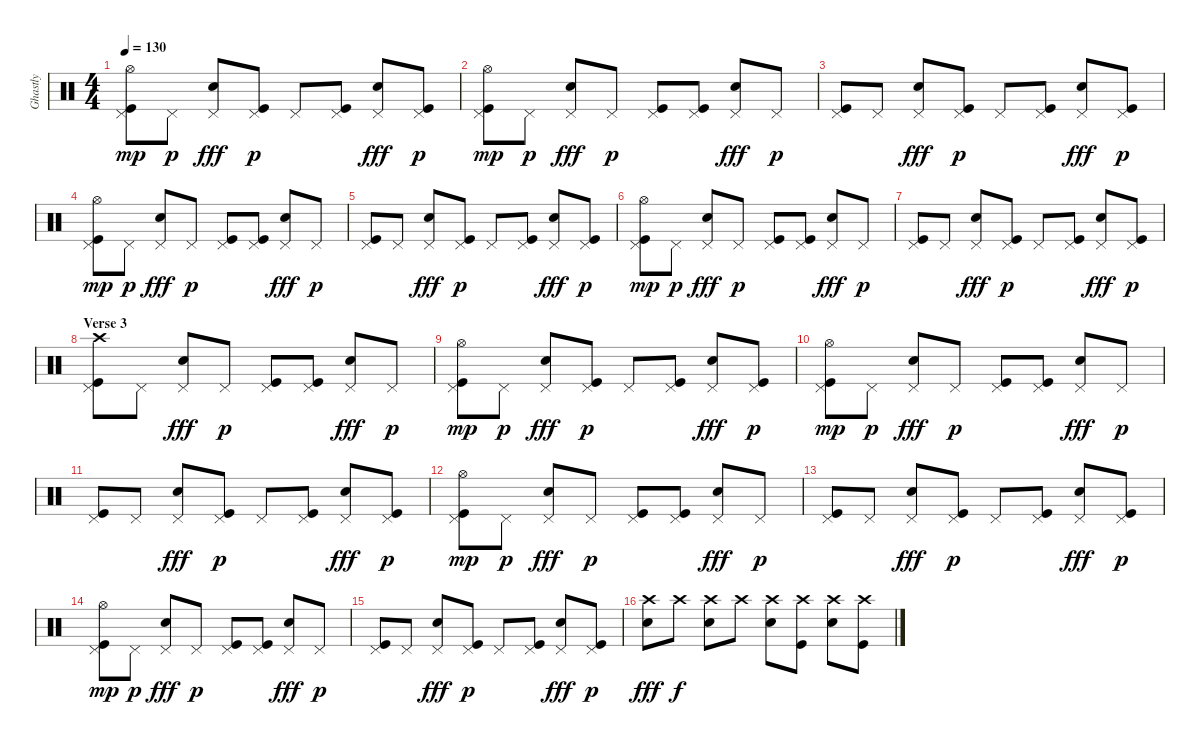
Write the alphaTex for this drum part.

\track ("Ghastly" "Ghastly") {instrument percussion}
\staff {score}
\articulation defaults
\ts (4 4)
\tempo 130
\clef neutral
\ks c
("Pedal Hi-Hat (hit)" "Kick (hit)" "Hi-Hat (open)").8{dy mp} "Pedal Hi-Hat (hit)".8{dy p} ("Pedal Hi-Hat (hit)" "Electric Snare (hit)").8{dy fff} ("Pedal Hi-Hat (hit)" "Kick (hit)").8{dy p} "Pedal Hi-Hat (hit)".8 ("Pedal Hi-Hat (hit)" "Kick (hit)").8 ("Pedal Hi-Hat (hit)" "Electric Snare (hit)").8{dy fff} ("Pedal Hi-Hat (hit)" "Kick (hit)").8{dy p} |
("Pedal Hi-Hat (hit)" "Kick (hit)" "Hi-Hat (open)").8{dy mp} "Pedal Hi-Hat (hit)".8{dy p} ("Pedal Hi-Hat (hit)" "Electric Snare (hit)").8{dy fff} "Pedal Hi-Hat (hit)".8{dy p} ("Pedal Hi-Hat (hit)" "Kick (hit)").8 ("Pedal Hi-Hat (hit)" "Kick (hit)").8 ("Pedal Hi-Hat (hit)" "Electric Snare (hit)").8{dy fff} "Pedal Hi-Hat (hit)".8{dy p} |
("Pedal Hi-Hat (hit)" "Kick (hit)").8 "Pedal Hi-Hat (hit)".8 ("Pedal Hi-Hat (hit)" "Electric Snare (hit)").8{dy fff} ("Pedal Hi-Hat (hit)" "Kick (hit)").8{dy p} "Pedal Hi-Hat (hit)".8 ("Pedal Hi-Hat (hit)" "Kick (hit)").8 ("Pedal Hi-Hat (hit)" "Electric Snare (hit)").8{dy fff} ("Pedal Hi-Hat (hit)" "Kick (hit)").8{dy p} |
("Pedal Hi-Hat (hit)" "Kick (hit)" "Hi-Hat (open)").8{dy mp} "Pedal Hi-Hat (hit)".8{dy p} ("Pedal Hi-Hat (hit)" "Electric Snare (hit)").8{dy fff} "Pedal Hi-Hat (hit)".8{dy p} ("Pedal Hi-Hat (hit)" "Kick (hit)").8 ("Pedal Hi-Hat (hit)" "Kick (hit)").8 ("Pedal Hi-Hat (hit)" "Electric Snare (hit)").8{dy fff} "Pedal Hi-Hat (hit)".8{dy p} |
("Pedal Hi-Hat (hit)" "Kick (hit)").8 "Pedal Hi-Hat (hit)".8 ("Pedal Hi-Hat (hit)" "Electric Snare (hit)").8{dy fff} ("Pedal Hi-Hat (hit)" "Kick (hit)").8{dy p} "Pedal Hi-Hat (hit)".8 ("Pedal Hi-Hat (hit)" "Kick (hit)").8 ("Pedal Hi-Hat (hit)" "Electric Snare (hit)").8{dy fff} ("Pedal Hi-Hat (hit)" "Kick (hit)").8{dy p} |
("Pedal Hi-Hat (hit)" "Kick (hit)" "Hi-Hat (open)").8{dy mp} "Pedal Hi-Hat (hit)".8{dy p} ("Pedal Hi-Hat (hit)" "Electric Snare (hit)").8{dy fff} "Pedal Hi-Hat (hit)".8{dy p} ("Pedal Hi-Hat (hit)" "Kick (hit)").8 ("Pedal Hi-Hat (hit)" "Kick (hit)").8 ("Pedal Hi-Hat (hit)" "Electric Snare (hit)").8{dy fff} "Pedal Hi-Hat (hit)".8{dy p} |
("Pedal Hi-Hat (hit)" "Kick (hit)").8 "Pedal Hi-Hat (hit)".8 ("Pedal Hi-Hat (hit)" "Electric Snare (hit)").8{dy fff} ("Pedal Hi-Hat (hit)" "Kick (hit)").8{dy p} "Pedal Hi-Hat (hit)".8 ("Pedal Hi-Hat (hit)" "Kick (hit)").8 ("Pedal Hi-Hat (hit)" "Electric Snare (hit)").8{dy fff} ("Pedal Hi-Hat (hit)" "Kick (hit)").8{dy p} |
\section ("" "Verse 3")
("Crash high (hit)" "Pedal Hi-Hat (hit)" "Kick (hit)").8 "Pedal Hi-Hat (hit)".8 ("Pedal Hi-Hat (hit)" "Electric Snare (hit)").8{dy fff} "Pedal Hi-Hat (hit)".8{dy p} ("Pedal Hi-Hat (hit)" "Kick (hit)").8 ("Pedal Hi-Hat (hit)" "Kick (hit)").8 ("Pedal Hi-Hat (hit)" "Electric Snare (hit)").8{dy fff} "Pedal Hi-Hat (hit)".8{dy p} |
("Pedal Hi-Hat (hit)" "Kick (hit)" "Hi-Hat (open)").8{dy mp} "Pedal Hi-Hat (hit)".8{dy p} ("Pedal Hi-Hat (hit)" "Electric Snare (hit)").8{dy fff} ("Pedal Hi-Hat (hit)" "Kick (hit)").8{dy p} "Pedal Hi-Hat (hit)".8 ("Pedal Hi-Hat (hit)" "Kick (hit)").8 ("Pedal Hi-Hat (hit)" "Electric Snare (hit)").8{dy fff} ("Pedal Hi-Hat (hit)" "Kick (hit)").8{dy p} |
("Pedal Hi-Hat (hit)" "Kick (hit)" "Hi-Hat (open)").8{dy mp} "Pedal Hi-Hat (hit)".8{dy p} ("Pedal Hi-Hat (hit)" "Electric Snare (hit)").8{dy fff} "Pedal Hi-Hat (hit)".8{dy p} ("Pedal Hi-Hat (hit)" "Kick (hit)").8 ("Pedal Hi-Hat (hit)" "Kick (hit)").8 ("Pedal Hi-Hat (hit)" "Electric Snare (hit)").8{dy fff} "Pedal Hi-Hat (hit)".8{dy p} |
("Pedal Hi-Hat (hit)" "Kick (hit)").8 "Pedal Hi-Hat (hit)".8 ("Pedal Hi-Hat (hit)" "Electric Snare (hit)").8{dy fff} ("Pedal Hi-Hat (hit)" "Kick (hit)").8{dy p} "Pedal Hi-Hat (hit)".8 ("Pedal Hi-Hat (hit)" "Kick (hit)").8 ("Pedal Hi-Hat (hit)" "Electric Snare (hit)").8{dy fff} ("Pedal Hi-Hat (hit)" "Kick (hit)").8{dy p} |
("Pedal Hi-Hat (hit)" "Kick (hit)" "Hi-Hat (open)").8{dy mp} "Pedal Hi-Hat (hit)".8{dy p} ("Pedal Hi-Hat (hit)" "Electric Snare (hit)").8{dy fff} "Pedal Hi-Hat (hit)".8{dy p} ("Pedal Hi-Hat (hit)" "Kick (hit)").8 ("Pedal Hi-Hat (hit)" "Kick (hit)").8 ("Pedal Hi-Hat (hit)" "Electric Snare (hit)").8{dy fff} "Pedal Hi-Hat (hit)".8{dy p} |
("Pedal Hi-Hat (hit)" "Kick (hit)").8 "Pedal Hi-Hat (hit)".8 ("Pedal Hi-Hat (hit)" "Electric Snare (hit)").8{dy fff} ("Pedal Hi-Hat (hit)" "Kick (hit)").8{dy p} "Pedal Hi-Hat (hit)".8 ("Pedal Hi-Hat (hit)" "Kick (hit)").8 ("Pedal Hi-Hat (hit)" "Electric Snare (hit)").8{dy fff} ("Pedal Hi-Hat (hit)" "Kick (hit)").8{dy p} |
("Pedal Hi-Hat (hit)" "Kick (hit)" "Hi-Hat (open)").8{dy mp} "Pedal Hi-Hat (hit)".8{dy p} ("Pedal Hi-Hat (hit)" "Electric Snare (hit)").8{dy fff} "Pedal Hi-Hat (hit)".8{dy p} ("Pedal Hi-Hat (hit)" "Kick (hit)").8 ("Pedal Hi-Hat (hit)" "Kick (hit)").8 ("Pedal Hi-Hat (hit)" "Electric Snare (hit)").8{dy fff} "Pedal Hi-Hat (hit)".8{dy p} |
("Pedal Hi-Hat (hit)" "Kick (hit)").8 "Pedal Hi-Hat (hit)".8 ("Pedal Hi-Hat (hit)" "Electric Snare (hit)").8{dy fff} ("Pedal Hi-Hat (hit)" "Kick (hit)").8{dy p} "Pedal Hi-Hat (hit)".8 ("Pedal Hi-Hat (hit)" "Kick (hit)").8 ("Pedal Hi-Hat (hit)" "Electric Snare (hit)").8{dy fff} ("Pedal Hi-Hat (hit)" "Kick (hit)").8{dy p} |
("Crash high (hit)" "Electric Snare (hit)").8{dy fff} "Crash high (hit)".8{dy f} ("Crash high (hit)" "Electric Snare (hit)").8 "Crash high (hit)".8 ("Crash high (hit)" "Electric Snare (hit)").8 ("Crash high (hit)" "Kick (hit)").8 ("Crash high (hit)" "Electric Snare (hit)").8 ("Crash high (hit)" "Kick (hit)").8
